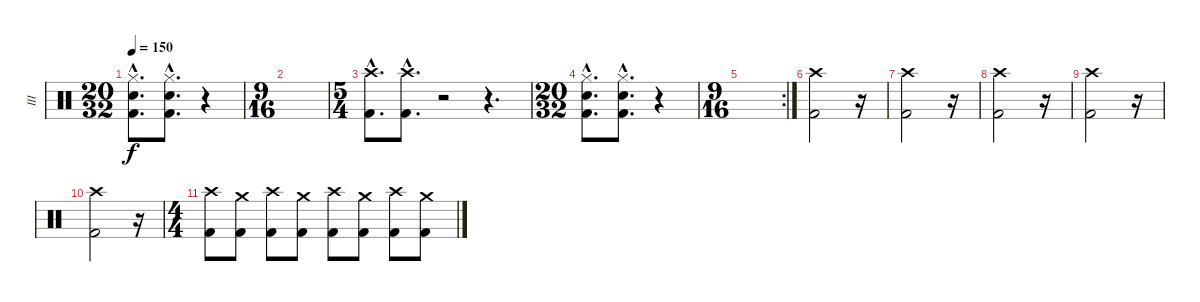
\track ("III" "III") {instrument percussion}
\staff {score}
\articulation defaults
\ts (20 32)
\tempo 150
\clef neutral
\ks c
("Hi-Hat (closed)"{hac} "Snare (hit) 2"{hac} "Kick (hit) 2"{hac}).8{d dy f} ("Hi-Hat (closed)"{hac} "Snare (hit) 2"{hac} "Kick (hit) 2"{hac}).8{d} r.4 |
\ts (9 16)
|
\ts (5 4)
("Crash high (hit)"{hac} "Kick (hit) 2"{hac}).8{d} ("Crash high (hit)"{hac} "Kick (hit) 2"{hac}).8{d} r.2 r.4{d} |
\ts (20 32)
("Hi-Hat (closed)"{hac} "Snare (hit) 2"{hac} "Kick (hit) 2"{hac}).8{d} ("Hi-Hat (closed)"{hac} "Snare (hit) 2"{hac} "Kick (hit) 2"{hac}).8{d} r.4 |
\rc 2
\ts (9 16)
|
("Crash high (hit)" "Kick (hit) 2").2 r.16 |
("Crash high (hit)" "Kick (hit) 2").2 r.16 |
("Crash high (hit)" "Kick (hit) 2").2 r.16 |
("Crash high (hit)" "Kick (hit) 2").2 r.16 |
("Crash high (hit)" "Kick (hit) 2").2 r.16 |
\ts (4 4)
("Crash high (hit)" "Kick (hit) 2").8 ("Crash medium (hit)" "Kick (hit) 2").8 ("Crash high (hit)" "Kick (hit) 2").8 ("Crash medium (hit)" "Kick (hit) 2").8 ("Crash high (hit)" "Kick (hit) 2").8 ("Crash medium (hit)" "Kick (hit) 2").8 ("Crash high (hit)" "Kick (hit) 2").8 ("Crash medium (hit)" "Kick (hit) 2").8
